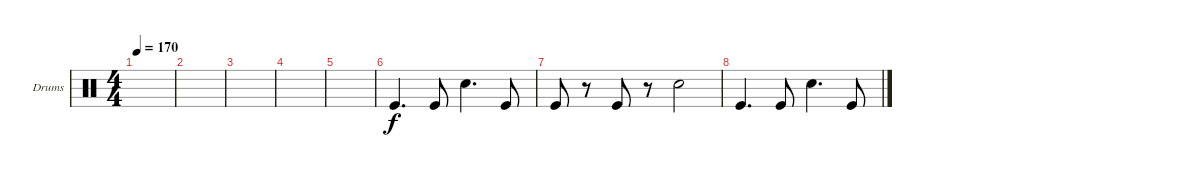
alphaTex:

\defaultSystemsLayout 4
\bracketExtendMode groupsimilarinstruments
\firstSystemTrackNameOrientation horizontal
\otherSystemsTrackNameOrientation horizontal
\track ("Drumkit" "Drums") {instrument percussion}
\staff {score}
\articulation defaults
\ts (4 4)
\tempo 170
\clef neutral
\scale
0.333333
\ks c
|
\scale
0.333333 |
\scale
0.333333 |
\scale
0.333333 |
\scale
0.333333 |
\scale
0.333333 "Kick (hit)".4{d} "Kick (hit)".8 "Snare (hit) 2".4{d} "Kick (hit)".8 |
\scale
0.333333 "Kick (hit)".8 r.8 "Kick (hit)".8 r.8 "Snare (hit) 2".2 |
\scale
0.333333 "Kick (hit)".4{d} "Kick (hit)".8 "Snare (hit) 2".4{d} "Kick (hit)".8 |
\scale
0.333333 |
\scale
0.333333 |
\scale
0.333333 |
\scale
0.333333 |
\scale
0.333333 |
\scale
0.333333 |
\scale
0.333333 |
\scale
0.333333
